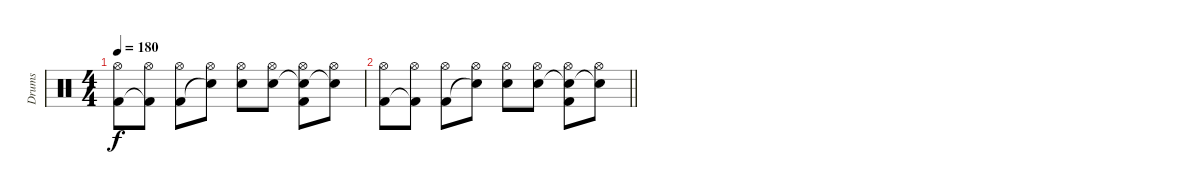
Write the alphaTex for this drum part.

\track ("Drums" "Drums") {instrument percussion}
\staff {score}
\articulation defaults
\ts (4 4)
\tempo 180
\clef neutral
\ks c
("Hi-Hat (open)" "Kick (hit) 2").8{dy f} ("Hi-Hat (open)" "Kick (hit) 2"{t}).8 ("Hi-Hat (open)" "Kick (hit) 2").8 ("Hi-Hat (open)" "Snare (hit)"{t}).8 ("Hi-Hat (open)" "Electric Snare (hit)").8 ("Hi-Hat (open)" "Electric Snare (hit)").8 ("Hi-Hat (open)" "Electric Snare (hit)"{t} "Kick (hit) 2").8 ("Hi-Hat (open)" "Snare (hit)"{t}).8 |
\barLineRight lightlight
("Hi-Hat (open)" "Kick (hit) 2").8 ("Hi-Hat (open)" "Kick (hit) 2"{t}).8 ("Hi-Hat (open)" "Kick (hit) 2").8 ("Hi-Hat (open)" "Snare (hit)"{t}).8 ("Hi-Hat (open)" "Electric Snare (hit)").8 ("Hi-Hat (open)" "Electric Snare (hit)").8 ("Hi-Hat (open)" "Electric Snare (hit)"{t} "Kick (hit) 2").8 ("Hi-Hat (open)" "Snare (hit)"{t}).8
